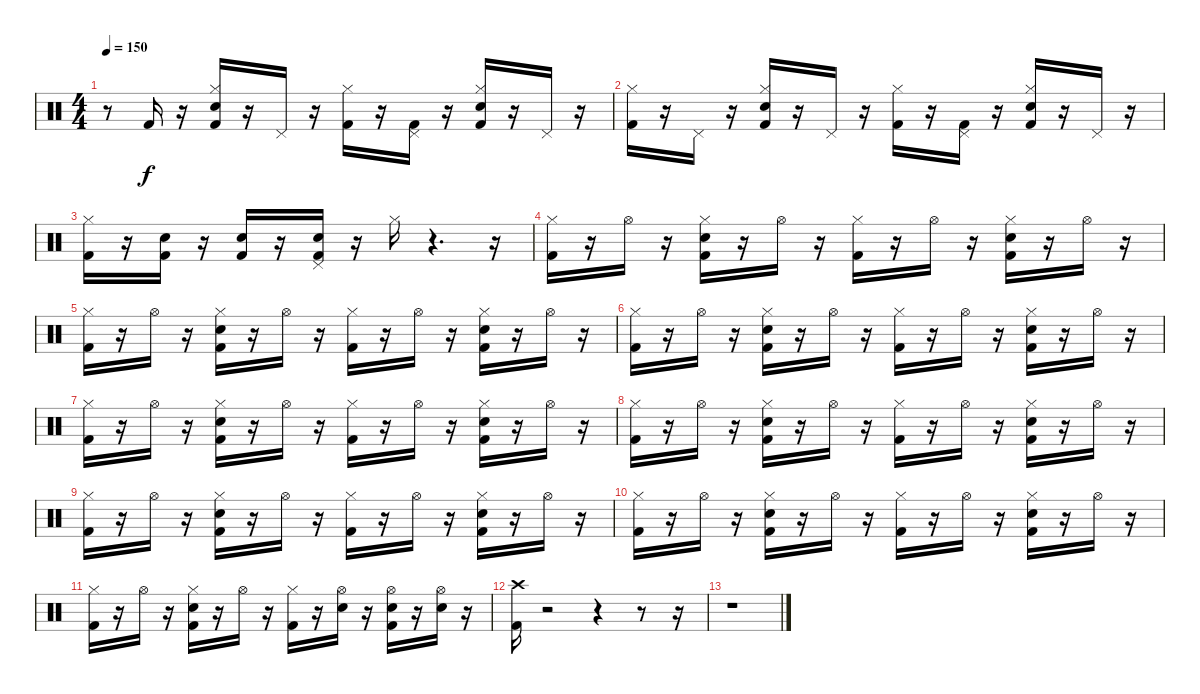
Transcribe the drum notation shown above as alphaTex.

\track "" {instrument percussion}
\staff {score}
\articulation defaults
\ts (4 4)
\tempo 150
\clef neutral
\ks c
r.8{dy f} "Kick (hit) 2".16 r.16 ("Hi-Hat (closed)" "Kick (hit) 2" "Electric Snare (hit)").16 r.16 "Pedal Hi-Hat (hit)".16 r.16 ("Hi-Hat (closed)" "Kick (hit) 2").16 r.16 ("Kick (hit) 2" "Pedal Hi-Hat (hit)").16 r.16 ("Hi-Hat (closed)" "Kick (hit) 2" "Electric Snare (hit)").16 r.16 "Pedal Hi-Hat (hit)".16 r.16 |
("Hi-Hat (closed)" "Kick (hit) 2").16 r.16 "Pedal Hi-Hat (hit)".16 r.16 ("Electric Snare (hit)" "Kick (hit) 2" "Hi-Hat (closed)").16 r.16 "Pedal Hi-Hat (hit)".16 r.16 ("Kick (hit) 2" "Hi-Hat (closed)").16 r.16 ("Kick (hit) 2" "Pedal Hi-Hat (hit)").16 r.16 ("Electric Snare (hit)" "Kick (hit) 2" "Hi-Hat (closed)").16 r.16 "Pedal Hi-Hat (hit)".16 r.16 |
("Kick (hit) 2" "Hi-Hat (closed)").16 r.16 ("Kick (hit) 2" "Electric Snare (hit)").16 r.16 ("Kick (hit) 2" "Electric Snare (hit)").16 r.16 ("Pedal Hi-Hat (hit)" "Electric Snare (hit)" "Kick (hit) 2").16 r.16 "Hi-Hat (closed)".16 r.4{d} r.16 |
("Hi-Hat (closed)" "Kick (hit) 2").16 r.16 "Hi-Hat (open)".16 r.16 ("Kick (hit) 2" "Hi-Hat (closed)" "Electric Snare (hit)").16 r.16 "Hi-Hat (open)".16 r.16 ("Hi-Hat (closed)" "Kick (hit) 2").16 r.16 "Hi-Hat (open)".16 r.16 ("Kick (hit) 2" "Hi-Hat (closed)" "Electric Snare (hit)").16 r.16 "Hi-Hat (open)".16 r.16 |
("Hi-Hat (closed)" "Kick (hit) 2").16 r.16 "Hi-Hat (open)".16 r.16 ("Electric Snare (hit)" "Hi-Hat (closed)" "Kick (hit) 2").16 r.16 "Hi-Hat (open)".16 r.16 ("Kick (hit) 2" "Hi-Hat (closed)").16 r.16 "Hi-Hat (open)".16 r.16 ("Electric Snare (hit)" "Hi-Hat (closed)" "Kick (hit) 2").16 r.16 "Hi-Hat (open)".16 r.16 |
("Hi-Hat (closed)" "Kick (hit) 2").16 r.16 "Hi-Hat (open)".16 r.16 ("Kick (hit) 2" "Hi-Hat (closed)" "Electric Snare (hit)").16 r.16 "Hi-Hat (open)".16 r.16 ("Hi-Hat (closed)" "Kick (hit) 2").16 r.16 "Hi-Hat (open)".16 r.16 ("Kick (hit) 2" "Hi-Hat (closed)" "Electric Snare (hit)").16 r.16 "Hi-Hat (open)".16 r.16 |
("Hi-Hat (closed)" "Kick (hit) 2").16 r.16 "Hi-Hat (open)".16 r.16 ("Electric Snare (hit)" "Hi-Hat (closed)" "Kick (hit) 2").16 r.16 "Hi-Hat (open)".16 r.16 ("Kick (hit) 2" "Hi-Hat (closed)").16 r.16 "Hi-Hat (open)".16 r.16 ("Electric Snare (hit)" "Hi-Hat (closed)" "Kick (hit) 2").16 r.16 "Hi-Hat (open)".16 r.16 |
("Hi-Hat (closed)" "Kick (hit) 2").16 r.16 "Hi-Hat (open)".16 r.16 ("Kick (hit) 2" "Hi-Hat (closed)" "Electric Snare (hit)").16 r.16 "Hi-Hat (open)".16 r.16 ("Hi-Hat (closed)" "Kick (hit) 2").16 r.16 "Hi-Hat (open)".16 r.16 ("Kick (hit) 2" "Hi-Hat (closed)" "Electric Snare (hit)").16 r.16 "Hi-Hat (open)".16 r.16 |
("Hi-Hat (closed)" "Kick (hit) 2").16 r.16 "Hi-Hat (open)".16 r.16 ("Electric Snare (hit)" "Hi-Hat (closed)" "Kick (hit) 2").16 r.16 "Hi-Hat (open)".16 r.16 ("Kick (hit) 2" "Hi-Hat (closed)").16 r.16 "Hi-Hat (open)".16 r.16 ("Electric Snare (hit)" "Hi-Hat (closed)" "Kick (hit) 2").16 r.16 "Hi-Hat (open)".16 r.16 |
("Hi-Hat (closed)" "Kick (hit) 2").16 r.16 "Hi-Hat (open)".16 r.16 ("Kick (hit) 2" "Hi-Hat (closed)" "Electric Snare (hit)").16 r.16 "Hi-Hat (open)".16 r.16 ("Hi-Hat (closed)" "Kick (hit) 2").16 r.16 "Hi-Hat (open)".16 r.16 ("Kick (hit) 2" "Hi-Hat (closed)" "Electric Snare (hit)").16 r.16 "Hi-Hat (open)".16 r.16 |
("Hi-Hat (closed)" "Kick (hit) 2").16 r.16 "Hi-Hat (open)".16 r.16 ("Electric Snare (hit)" "Hi-Hat (closed)" "Kick (hit) 2").16 r.16 "Hi-Hat (open)".16 r.16 ("Kick (hit) 2" "Hi-Hat (closed)").16 r.16 ("Electric Snare (hit)" "Hi-Hat (open)").16 r.16 ("Hi-Hat (open)" "Electric Snare (hit)" "Kick (hit) 2").16 r.16 ("Electric Snare (hit)" "Hi-Hat (open)").16 r.16 |
("Crash high (hit)" "Kick (hit) 2").16 r.2 r.4 r.8 r.16 |
r.1
